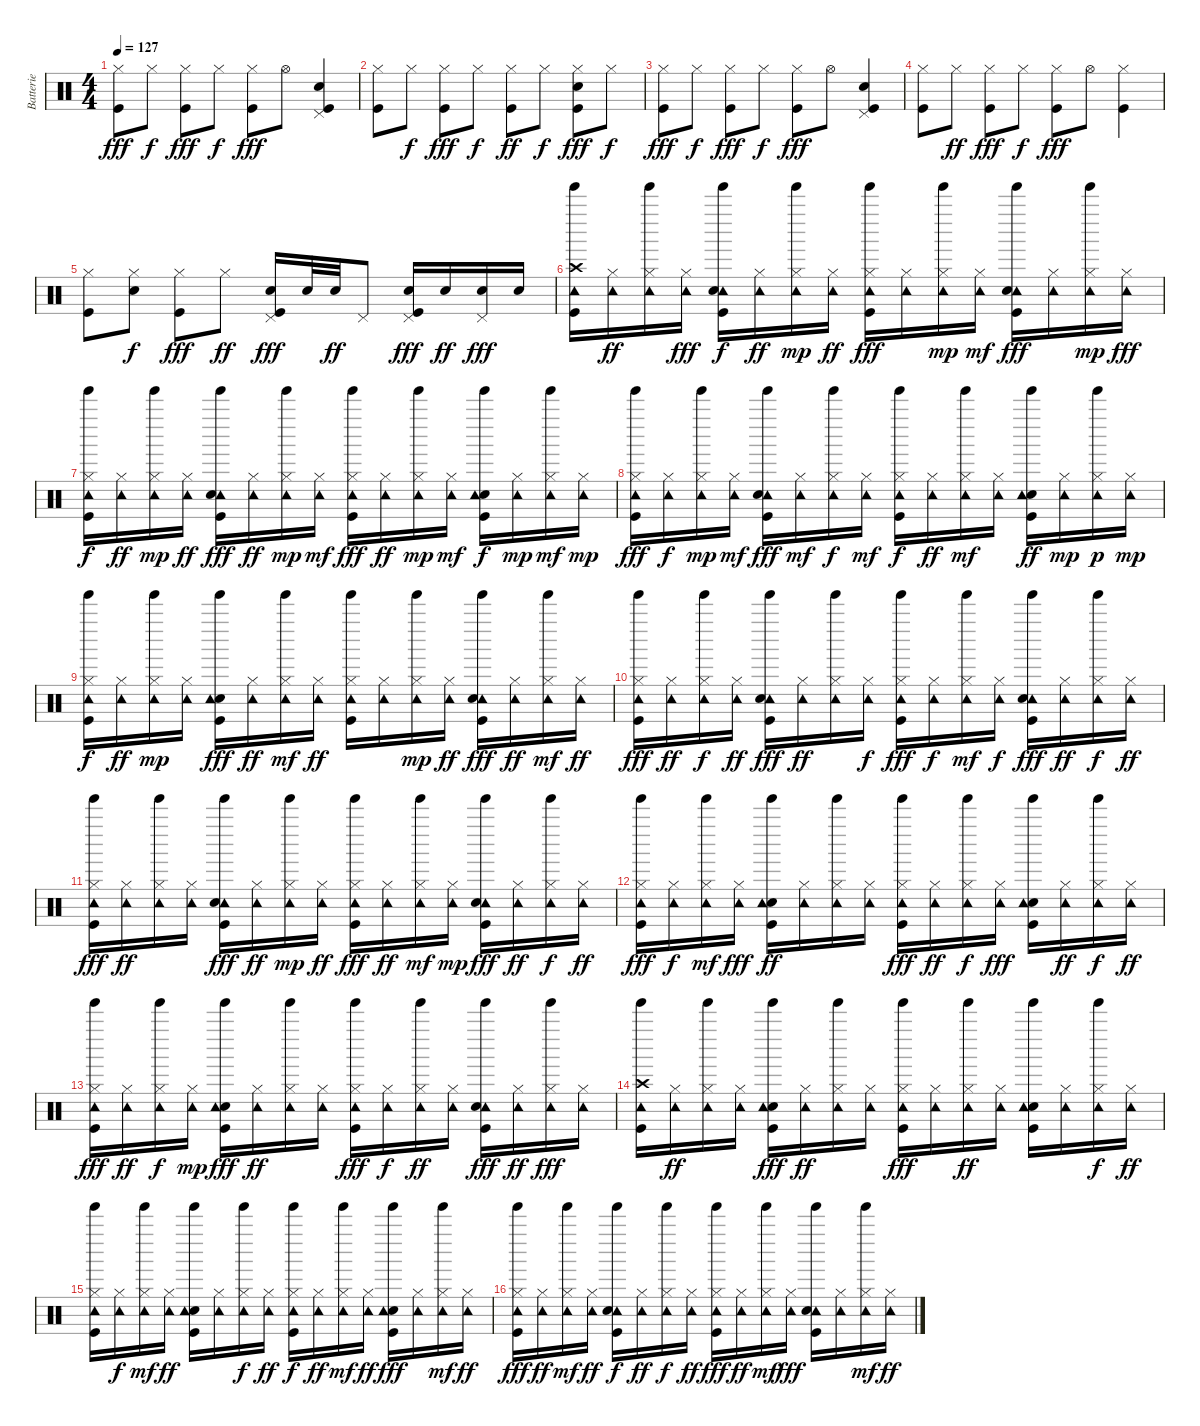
\track ("Batterie" "Batterie") {instrument percussion}
\staff {score}
\articulation defaults
\ts (4 4)
\tempo 127
\clef neutral
\ks c
("Hi-Hat (closed)" "Kick (hit)").8{dy fff} "Hi-Hat (closed)".8{dy f} ("Kick (hit)" "Hi-Hat (closed)").8{dy fff} "Hi-Hat (closed)".8{dy f} ("Hi-Hat (closed)" "Kick (hit)").8{dy fff} "Hi-Hat (open)".8 ("Snare (hit) 2" "Pedal Hi-Hat (hit)" "Kick (hit)").4 |
("Kick (hit)" "Hi-Hat (closed)").8 "Hi-Hat (closed)".8{dy f} ("Kick (hit)" "Hi-Hat (closed)").8{dy fff} "Hi-Hat (closed)".8{dy f} ("Kick (hit)" "Hi-Hat (closed)").8{dy ff} "Hi-Hat (closed)".8{dy f} ("Kick (hit)" "Snare (hit) 2" "Hi-Hat (closed)").8{dy fff} "Hi-Hat (closed)".8{dy f} |
("Kick (hit)" "Hi-Hat (closed)").8{dy fff} "Hi-Hat (closed)".8{dy f} ("Hi-Hat (closed)" "Kick (hit)").8{dy fff} "Hi-Hat (closed)".8{dy f} ("Hi-Hat (closed)" "Kick (hit)").8{dy fff} "Hi-Hat (open)".8 ("Kick (hit)" "Snare (hit) 2" "Pedal Hi-Hat (hit)").4 |
("Kick (hit)" "Hi-Hat (closed)").8 "Hi-Hat (closed)".8{dy ff} ("Kick (hit)" "Hi-Hat (closed)").8{dy fff} "Hi-Hat (closed)".8{dy f} ("Kick (hit)" "Hi-Hat (closed)").8{dy fff} "Hi-Hat (open)".8 ("Hi-Hat (closed)" "Kick (hit)").4 |
("Kick (hit)" "Hi-Hat (closed)").8 ("Snare (hit) 2" "Hi-Hat (closed)").8{dy f} ("Hi-Hat (closed)" "Kick (hit)").8{dy fff} "Hi-Hat (closed)".8{dy ff} ("Pedal Hi-Hat (hit)" "Kick (hit)" "Snare (hit) 2").16{dy fff} "Snare (hit) 2".32 "Snare (hit) 2".32{dy ff} "Pedal Hi-Hat (hit)".8 ("Pedal Hi-Hat (hit)" "Kick (hit)" "Snare (hit) 2").16{dy fff} "Snare (hit) 2".16{dy ff} ("Snare (hit) 2" "Pedal Hi-Hat (hit)").16{dy fff} "Snare (hit) 2".16 |
("Crash high (hit)" "Tinkle Bell (hit)" "Tambourine (hit)" "Kick (hit)").16 ("Tambourine (hit)" "Hi-Hat (closed)").16{dy ff} ("Tinkle Bell (hit)" "Tambourine (hit)" "Hi-Hat (closed)").16 ("Tambourine (hit)" "Hi-Hat (closed)").16{dy fff} ("Tambourine (hit)" "Kick (hit)" "Snare (hit) 2" "Tinkle Bell (hit)").16{dy f} ("Tambourine (hit)" "Hi-Hat (closed)").16{dy ff} ("Hi-Hat (closed)" "Tambourine (hit)" "Tinkle Bell (hit)").16{dy mp} ("Tambourine (hit)" "Hi-Hat (closed)").16{dy ff} ("Kick (hit)" "Tambourine (hit)" "Tinkle Bell (hit)" "Hi-Hat (closed)").16{dy fff} ("Tambourine (hit)" "Hi-Hat (closed)").16 ("Hi-Hat (closed)" "Tambourine (hit)" "Tinkle Bell (hit)").16{dy mp} ("Hi-Hat (closed)" "Tambourine (hit)").16{dy mf} ("Tinkle Bell (hit)" "Tambourine (hit)" "Kick (hit)" "Snare (hit) 2").16{dy fff} ("Tambourine (hit)" "Hi-Hat (closed)").16 ("Hi-Hat (closed)" "Tambourine (hit)" "Tinkle Bell (hit)").16{dy mp} ("Tambourine (hit)" "Hi-Hat (closed)").16{dy fff} |
("Tambourine (hit)" "Kick (hit)" "Hi-Hat (closed)" "Tinkle Bell (hit)").16{dy f} ("Tambourine (hit)" "Hi-Hat (closed)").16{dy ff} ("Hi-Hat (closed)" "Tambourine (hit)" "Tinkle Bell (hit)").16{dy mp} ("Tambourine (hit)" "Hi-Hat (closed)").16{dy ff} ("Tambourine (hit)" "Tinkle Bell (hit)" "Kick (hit)" "Snare (hit) 2").16{dy fff} ("Tambourine (hit)" "Hi-Hat (closed)").16{dy ff} ("Tinkle Bell (hit)" "Hi-Hat (closed)" "Tambourine (hit)").16{dy mp} ("Hi-Hat (closed)" "Tambourine (hit)").16{dy mf} ("Tinkle Bell (hit)" "Tambourine (hit)" "Kick (hit)" "Hi-Hat (closed)").16{dy fff} ("Tambourine (hit)" "Hi-Hat (closed)").16{dy ff} ("Tinkle Bell (hit)" "Hi-Hat (closed)" "Tambourine (hit)").16{dy mp} ("Hi-Hat (closed)" "Tambourine (hit)").16{dy mf} ("Tinkle Bell (hit)" "Snare (hit) 2" "Kick (hit)" "Tambourine (hit)").16{dy f} ("Hi-Hat (closed)" "Tambourine (hit)").16{dy mp} ("Hi-Hat (closed)" "Tinkle Bell (hit)" "Tambourine (hit)").16{dy mf} ("Hi-Hat (closed)" "Tambourine (hit)").16{dy mp} |
("Hi-Hat (closed)" "Tinkle Bell (hit)" "Tambourine (hit)" "Kick (hit)").16{dy fff} ("Tambourine (hit)" "Hi-Hat (closed)").16{dy f} ("Hi-Hat (closed)" "Tinkle Bell (hit)" "Tambourine (hit)").16{dy mp} ("Hi-Hat (closed)" "Tambourine (hit)").16{dy mf} ("Tinkle Bell (hit)" "Kick (hit)" "Tambourine (hit)" "Snare (hit) 2").16{dy fff} ("Hi-Hat (closed)" "Tambourine (hit)").16{dy mf} ("Tinkle Bell (hit)" "Tambourine (hit)" "Hi-Hat (closed)").16{dy f} ("Hi-Hat (closed)" "Tambourine (hit)").16{dy mf} ("Tinkle Bell (hit)" "Kick (hit)" "Hi-Hat (closed)" "Tambourine (hit)").16{dy f} ("Tambourine (hit)" "Hi-Hat (closed)").16{dy ff} ("Tinkle Bell (hit)" "Hi-Hat (closed)" "Tambourine (hit)").16{dy mf} ("Hi-Hat (closed)" "Tambourine (hit)").16 ("Tinkle Bell (hit)" "Kick (hit)" "Snare (hit) 2" "Tambourine (hit)").16{dy ff} ("Hi-Hat (closed)" "Tambourine (hit)").16{dy mp} ("Tinkle Bell (hit)" "Hi-Hat (closed)" "Tambourine (hit)").16{dy p} ("Hi-Hat (closed)" "Tambourine (hit)").16{dy mp} |
("Kick (hit)" "Hi-Hat (closed)" "Tambourine (hit)" "Tinkle Bell (hit)").16{dy f} ("Tambourine (hit)" "Hi-Hat (closed)").16{dy ff} ("Hi-Hat (closed)" "Tambourine (hit)" "Tinkle Bell (hit)").16{dy mp} ("Hi-Hat (closed)" "Tambourine (hit)").16 ("Tinkle Bell (hit)" "Snare (hit) 2" "Tambourine (hit)" "Kick (hit)").16{dy fff} ("Tambourine (hit)" "Hi-Hat (closed)").16{dy ff} ("Tinkle Bell (hit)" "Tambourine (hit)" "Hi-Hat (closed)").16{dy mf} ("Tambourine (hit)" "Hi-Hat (closed)").16{dy ff} ("Tinkle Bell (hit)" "Hi-Hat (closed)" "Kick (hit)" "Tambourine (hit)").16 ("Tambourine (hit)" "Hi-Hat (closed)").16 ("Tinkle Bell (hit)" "Hi-Hat (closed)" "Tambourine (hit)").16{dy mp} ("Tambourine (hit)" "Hi-Hat (closed)").16{dy ff} ("Tinkle Bell (hit)" "Tambourine (hit)" "Kick (hit)" "Snare (hit) 2").16{dy fff} ("Tambourine (hit)" "Hi-Hat (closed)").16{dy ff} ("Tinkle Bell (hit)" "Tambourine (hit)" "Hi-Hat (closed)").16{dy mf} ("Tambourine (hit)" "Hi-Hat (closed)").16{dy ff} |
("Tinkle Bell (hit)" "Hi-Hat (closed)" "Tambourine (hit)" "Kick (hit)").16{dy fff} ("Tambourine (hit)" "Hi-Hat (closed)").16{dy ff} ("Tambourine (hit)" "Tinkle Bell (hit)" "Hi-Hat (closed)").16{dy f} ("Tambourine (hit)" "Hi-Hat (closed)").16{dy ff} ("Tinkle Bell (hit)" "Kick (hit)" "Tambourine (hit)" "Snare (hit) 2").16{dy fff} ("Tambourine (hit)" "Hi-Hat (closed)").16{dy ff} ("Tinkle Bell (hit)" "Tambourine (hit)" "Hi-Hat (closed)").16 ("Tambourine (hit)" "Hi-Hat (closed)").16{dy f} ("Tinkle Bell (hit)" "Hi-Hat (closed)" "Tambourine (hit)" "Kick (hit)").16{dy fff} ("Tambourine (hit)" "Hi-Hat (closed)").16{dy f} ("Tinkle Bell (hit)" "Hi-Hat (closed)" "Tambourine (hit)").16{dy mf} ("Tambourine (hit)" "Hi-Hat (closed)").16{dy f} ("Tinkle Bell (hit)" "Kick (hit)" "Tambourine (hit)" "Snare (hit) 2").16{dy fff} ("Tambourine (hit)" "Hi-Hat (closed)").16{dy ff} ("Tinkle Bell (hit)" "Tambourine (hit)" "Hi-Hat (closed)").16{dy f} ("Tambourine (hit)" "Hi-Hat (closed)").16{dy ff} |
("Tinkle Bell (hit)" "Kick (hit)" "Tambourine (hit)" "Hi-Hat (closed)").16{dy fff} ("Tambourine (hit)" "Hi-Hat (closed)").16{dy ff} ("Tinkle Bell (hit)" "Tambourine (hit)" "Hi-Hat (closed)").16 ("Tambourine (hit)" "Hi-Hat (closed)").16 ("Tinkle Bell (hit)" "Kick (hit)" "Tambourine (hit)" "Snare (hit) 2").16{dy fff} ("Tambourine (hit)" "Hi-Hat (closed)").16{dy ff} ("Tinkle Bell (hit)" "Hi-Hat (closed)" "Tambourine (hit)").16{dy mp} ("Tambourine (hit)" "Hi-Hat (closed)").16{dy ff} ("Hi-Hat (closed)" "Tambourine (hit)" "Tinkle Bell (hit)" "Kick (hit)").16{dy fff} ("Tambourine (hit)" "Hi-Hat (closed)").16{dy ff} ("Hi-Hat (closed)" "Tambourine (hit)" "Tinkle Bell (hit)").16{dy mf} ("Hi-Hat (closed)" "Tambourine (hit)").16{dy mp} ("Tambourine (hit)" "Tinkle Bell (hit)" "Kick (hit)" "Snare (hit) 2").16{dy fff} ("Tambourine (hit)" "Hi-Hat (closed)").16{dy ff} ("Tinkle Bell (hit)" "Tambourine (hit)" "Hi-Hat (closed)").16{dy f} ("Tambourine (hit)" "Hi-Hat (closed)").16{dy ff} |
("Tambourine (hit)" "Tinkle Bell (hit)" "Kick (hit)" "Hi-Hat (closed)").16{dy fff} ("Tambourine (hit)" "Hi-Hat (closed)").16{dy f} ("Tinkle Bell (hit)" "Hi-Hat (closed)" "Tambourine (hit)").16{dy mf} ("Tambourine (hit)" "Hi-Hat (closed)").16{dy fff} ("Tinkle Bell (hit)" "Kick (hit)" "Snare (hit) 2" "Tambourine (hit)").16{dy ff} ("Tambourine (hit)" "Hi-Hat (closed)").16 ("Tinkle Bell (hit)" "Tambourine (hit)" "Hi-Hat (closed)").16 ("Tambourine (hit)" "Hi-Hat (closed)").16 ("Tinkle Bell (hit)" "Tambourine (hit)" "Kick (hit)" "Hi-Hat (closed)").16{dy fff} ("Tambourine (hit)" "Hi-Hat (closed)").16{dy ff} ("Tinkle Bell (hit)" "Tambourine (hit)" "Hi-Hat (closed)").16{dy f} ("Tambourine (hit)" "Hi-Hat (closed)").16{dy fff} ("Snare (hit) 2" "Tinkle Bell (hit)" "Tambourine (hit)" "Kick (hit)").16 ("Tambourine (hit)" "Hi-Hat (closed)").16{dy ff} ("Tambourine (hit)" "Tinkle Bell (hit)" "Hi-Hat (closed)").16{dy f} ("Tambourine (hit)" "Hi-Hat (closed)").16{dy ff} |
("Tinkle Bell (hit)" "Hi-Hat (closed)" "Tambourine (hit)" "Kick (hit)").16{dy fff} ("Tambourine (hit)" "Hi-Hat (closed)").16{dy ff} ("Tambourine (hit)" "Tinkle Bell (hit)" "Hi-Hat (closed)").16{dy f} ("Hi-Hat (closed)" "Tambourine (hit)").16{dy mp} ("Snare (hit) 2" "Tambourine (hit)" "Tinkle Bell (hit)" "Kick (hit)").16{dy fff} ("Tambourine (hit)" "Hi-Hat (closed)").16{dy ff} ("Tinkle Bell (hit)" "Tambourine (hit)" "Hi-Hat (closed)").16 ("Tambourine (hit)" "Hi-Hat (closed)").16 ("Tinkle Bell (hit)" "Hi-Hat (closed)" "Tambourine (hit)" "Kick (hit)").16{dy fff} ("Tambourine (hit)" "Hi-Hat (closed)").16{dy f} ("Tambourine (hit)" "Tinkle Bell (hit)" "Hi-Hat (closed)").16{dy ff} ("Tambourine (hit)" "Hi-Hat (closed)").16 ("Tinkle Bell (hit)" "Tambourine (hit)" "Kick (hit)" "Snare (hit) 2").16{dy fff} ("Tambourine (hit)" "Hi-Hat (closed)").16{dy ff} ("Tinkle Bell (hit)" "Tambourine (hit)" "Hi-Hat (closed)").16{dy fff} ("Tambourine (hit)" "Hi-Hat (closed)").16 |
("Crash high (hit)" "Tinkle Bell (hit)" "Tambourine (hit)" "Kick (hit)").16 ("Tambourine (hit)" "Hi-Hat (closed)").16{dy ff} ("Tambourine (hit)" "Tinkle Bell (hit)" "Hi-Hat (closed)").16 ("Tambourine (hit)" "Hi-Hat (closed)").16 ("Tinkle Bell (hit)" "Snare (hit) 2" "Tambourine (hit)" "Kick (hit)").16{dy fff} ("Tambourine (hit)" "Hi-Hat (closed)").16{dy ff} ("Tambourine (hit)" "Tinkle Bell (hit)" "Hi-Hat (closed)").16 ("Tambourine (hit)" "Hi-Hat (closed)").16 ("Tambourine (hit)" "Tinkle Bell (hit)" "Kick (hit)" "Hi-Hat (closed)").16{dy fff} ("Tambourine (hit)" "Hi-Hat (closed)").16 ("Tinkle Bell (hit)" "Tambourine (hit)" "Hi-Hat (closed)").16{dy ff} ("Tambourine (hit)" "Hi-Hat (closed)").16 ("Tinkle Bell (hit)" "Kick (hit)" "Snare (hit) 2" "Tambourine (hit)").16 ("Tambourine (hit)" "Hi-Hat (closed)").16 ("Tinkle Bell (hit)" "Tambourine (hit)" "Hi-Hat (closed)").16{dy f} ("Tambourine (hit)" "Hi-Hat (closed)").16{dy ff} |
("Tinkle Bell (hit)" "Kick (hit)" "Hi-Hat (closed)" "Tambourine (hit)").16 ("Tambourine (hit)" "Hi-Hat (closed)").16{dy f} ("Hi-Hat (closed)" "Tinkle Bell (hit)" "Tambourine (hit)").16{dy mf} ("Tambourine (hit)" "Hi-Hat (closed)").16{dy ff} ("Tinkle Bell (hit)" "Kick (hit)" "Snare (hit) 2" "Tambourine (hit)").16 ("Tambourine (hit)" "Hi-Hat (closed)").16 ("Tinkle Bell (hit)" "Tambourine (hit)" "Hi-Hat (closed)").16{dy f} ("Tambourine (hit)" "Hi-Hat (closed)").16{dy ff} ("Tinkle Bell (hit)" "Hi-Hat (closed)" "Kick (hit)" "Tambourine (hit)").16{dy f} ("Tambourine (hit)" "Hi-Hat (closed)").16{dy ff} ("Hi-Hat (closed)" "Tinkle Bell (hit)" "Tambourine (hit)").16{dy mf} ("Tambourine (hit)" "Hi-Hat (closed)").16{dy ff} ("Tinkle Bell (hit)" "Snare (hit) 2" "Tambourine (hit)" "Kick (hit)").16{dy fff} ("Tambourine (hit)" "Hi-Hat (closed)").16 ("Tinkle Bell (hit)" "Hi-Hat (closed)" "Tambourine (hit)").16{dy mf} ("Tambourine (hit)" "Hi-Hat (closed)").16{dy ff} |
("Hi-Hat (closed)" "Tambourine (hit)" "Tinkle Bell (hit)" "Kick (hit)").16{dy fff} ("Tambourine (hit)" "Hi-Hat (closed)").16{dy ff} ("Hi-Hat (closed)" "Tambourine (hit)" "Tinkle Bell (hit)").16{dy mf} ("Tambourine (hit)" "Hi-Hat (closed)").16{dy ff} ("Tambourine (hit)" "Kick (hit)" "Snare (hit) 2" "Tinkle Bell (hit)").16{dy f} ("Tambourine (hit)" "Hi-Hat (closed)").16{dy ff} ("Tinkle Bell (hit)" "Tambourine (hit)" "Hi-Hat (closed)").16{dy f} ("Tambourine (hit)" "Hi-Hat (closed)").16{dy ff} ("Tinkle Bell (hit)" "Hi-Hat (closed)" "Tambourine (hit)" "Kick (hit)").16{dy fff} ("Tambourine (hit)" "Hi-Hat (closed)").16{dy ff} ("Hi-Hat (closed)" "Tinkle Bell (hit)" "Tambourine (hit)").16{dy mf} ("Tambourine (hit)" "Hi-Hat (closed)").16{dy fff} ("Tinkle Bell (hit)" "Tambourine (hit)" "Kick (hit)" "Snare (hit) 2").16 ("Tambourine (hit)" "Hi-Hat (closed)").16 ("Tambourine (hit)" "Tinkle Bell (hit)" "Hi-Hat (closed)").16{dy mf} ("Tambourine (hit)" "Hi-Hat (closed)").16{dy ff}
